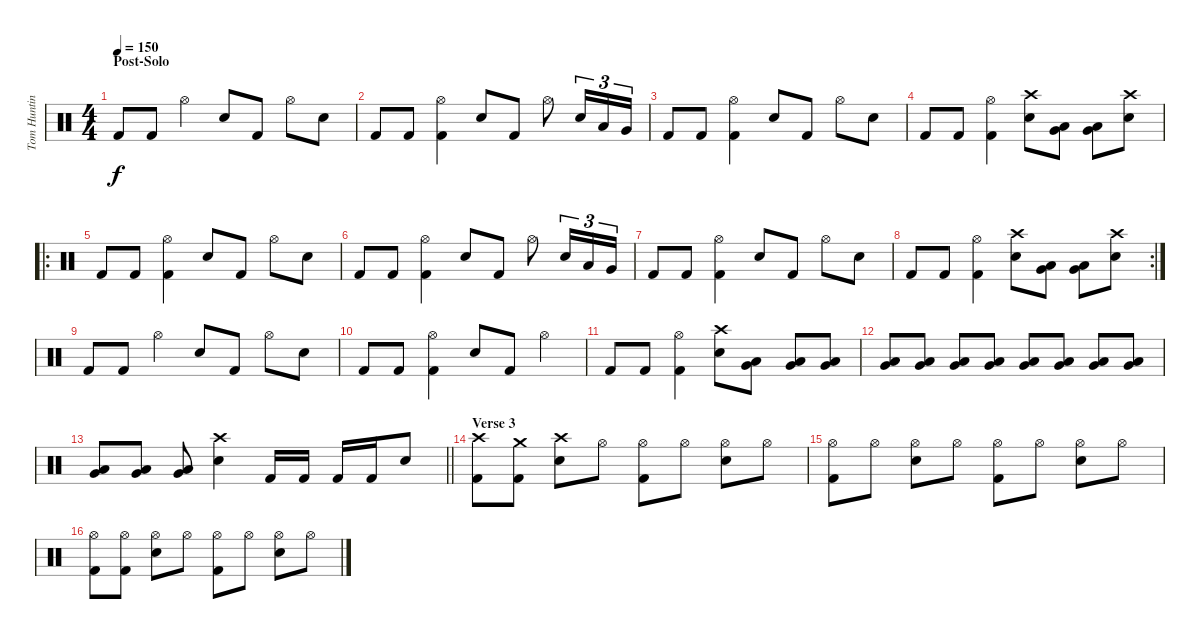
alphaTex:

\track ("Tom Hunting" "Tom Huntin") {instrument percussion}
\staff {score}
\articulation defaults
\ts (4 4)
\section ("" "Post-Solo")
\tempo 150
\clef neutral
\ks c "Kick (hit) 2".8{dy f} "Kick (hit) 2".8 "Hi-Hat (open)".4 "Snare (hit) 2".8 "Kick (hit) 2".8 "Hi-Hat (open)".8 "Snare (hit) 2".8
|
"Kick (hit) 2".8 "Kick (hit) 2".8 ("Hi-Hat (open)" "Kick (hit) 2").4 "Snare (hit) 2".8 "Kick (hit) 2".8 "Hi-Hat (open)".8 "Snare (hit) 2".16{tu (3 2)} "Low Tom (hit)".16{tu (3 2)} "Very Low Tom (hit)".16{tu (3 2)} |
"Kick (hit) 2".8 "Kick (hit) 2".8 ("Hi-Hat (open)" "Kick (hit) 2").4 "Snare (hit) 2".8 "Kick (hit) 2".8 "Hi-Hat (open)".8 "Snare (hit) 2".8 |
"Kick (hit) 2".8 "Kick (hit) 2".8 ("Hi-Hat (open)" "Kick (hit) 2").4 ("Crash high (hit)" "Snare (hit) 2").8 ("Low Tom (hit)" "Very Low Tom (hit)").8 ("Low Tom (hit)" "Very Low Tom (hit)").8 ("Crash high (hit)" "Snare (hit) 2").8 |
\ro "Kick (hit) 2".8 "Kick (hit) 2".8
("Hi-Hat (open)" "Kick (hit) 2").4 "Snare (hit) 2".8 "Kick (hit) 2".8 "Hi-Hat (open)".8 "Snare (hit) 2".8 |
"Kick (hit) 2".8 "Kick (hit) 2".8 ("Hi-Hat (open)" "Kick (hit) 2").4 "Snare (hit) 2".8 "Kick (hit) 2".8 "Hi-Hat (open)".8 "Snare (hit) 2".16{tu (3 2)} "Low Tom (hit)".16{tu (3 2)} "Very Low Tom (hit)".16{tu (3 2)} |
"Kick (hit) 2".8 "Kick (hit) 2".8 ("Hi-Hat (open)" "Kick (hit) 2").4 "Snare (hit) 2".8 "Kick (hit) 2".8 "Hi-Hat (open)".8 "Snare (hit) 2".8 |
\rc 2 "Kick (hit) 2".8 "Kick (hit) 2".8
("Hi-Hat (open)" "Kick (hit) 2").4 ("Crash high (hit)" "Snare (hit) 2").8 ("Low Tom (hit)" "Very Low Tom (hit)").8 ("Low Tom (hit)" "Very Low Tom (hit)").8 ("Crash high (hit)" "Snare (hit) 2").8 |
"Kick (hit) 2".8 "Kick (hit) 2".8 "Hi-Hat (open)".4 "Snare (hit) 2".8 "Kick (hit) 2".8 "Hi-Hat (open)".8 "Snare (hit) 2".8 |
"Kick (hit) 2".8 "Kick (hit) 2".8 ("Hi-Hat (open)" "Kick (hit) 2").4 "Snare (hit) 2".8 "Kick (hit) 2".8 "Hi-Hat (open)".4 |
"Kick (hit) 2".8 "Kick (hit) 2".8 ("Hi-Hat (open)" "Kick (hit) 2").4 ("Crash high (hit)" "Snare (hit) 2").8 ("Low Tom (hit)" "Very Low Tom (hit)").8 ("Low Tom (hit)" "Very Low Tom (hit)").8 ("Low Tom (hit)" "Very Low Tom (hit)").8 |
("Low Tom (hit)" "Very Low Tom (hit)").8 ("Low Tom (hit)" "Very Low Tom (hit)").8 ("Low Tom (hit)" "Very Low Tom (hit)").8 ("Low Tom (hit)" "Very Low Tom (hit)").8 ("Low Tom (hit)" "Very Low Tom (hit)").8 ("Low Tom (hit)" "Very Low Tom (hit)").8 ("Low Tom (hit)" "Very Low Tom (hit)").8 ("Low Tom (hit)" "Very Low Tom (hit)").8 |
\barLineRight lightlight
("Low Tom (hit)" "Very Low Tom (hit)").8 ("Low Tom (hit)" "Very Low Tom (hit)").8 ("Low Tom (hit)" "Very Low Tom (hit)").8 ("Crash high (hit)" "Snare (hit) 2").4 "Kick (hit) 2".16 "Kick (hit) 2".16 "Kick (hit) 2".16 "Kick (hit) 2".16 "Snare (hit) 2".8 |
\section ("" "Verse 3")
("Crash high (hit)" "Kick (hit) 2").8 ("Crash medium (hit)" "Kick (hit) 2").8 ("Crash high (hit)" "Snare (hit) 2").8 "Hi-Hat (open)".8 ("Hi-Hat (open)" "Kick (hit) 2").8 "Hi-Hat (open)".8 ("Hi-Hat (open)" "Snare (hit) 2").8 "Hi-Hat (open)".8 |
("Hi-Hat (open)" "Kick (hit) 2").8 "Hi-Hat (open)".8 ("Hi-Hat (open)" "Snare (hit) 2").8 "Hi-Hat (open)".8 ("Hi-Hat (open)" "Kick (hit) 2").8 "Hi-Hat (open)".8 ("Hi-Hat (open)" "Snare (hit) 2").8 "Hi-Hat (open)".8 |
("Hi-Hat (open)" "Kick (hit) 2").8 ("Hi-Hat (open)" "Kick (hit) 2").8 ("Hi-Hat (open)" "Snare (hit) 2").8 "Hi-Hat (open)".8 ("Hi-Hat (open)" "Kick (hit) 2").8 "Hi-Hat (open)".8 ("Hi-Hat (open)" "Snare (hit) 2").8 "Hi-Hat (open)".8
